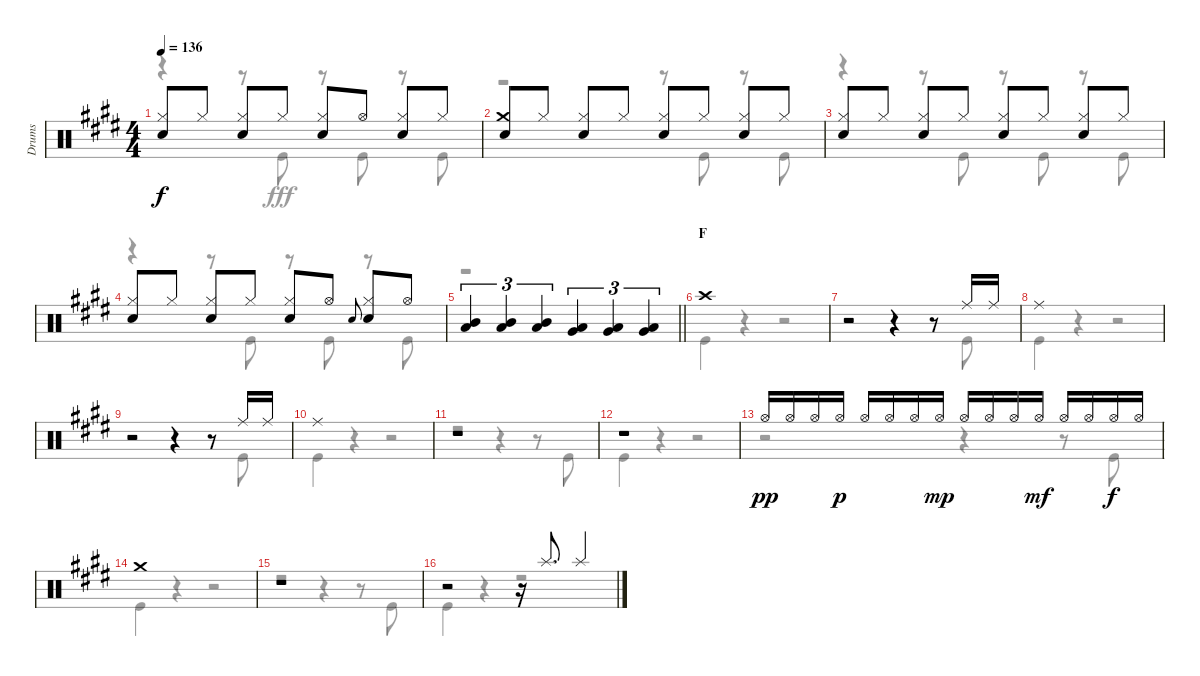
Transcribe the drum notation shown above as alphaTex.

\track ("Drums" "Drums") {instrument percussion}
\staff {score}
\articulation defaults
\voice
\ts (4 4)
\tempo 136
\clef neutral
\ks e
("Hi-Hat (closed)" "Snare (hit) 2").8{dy f} "Hi-Hat (closed)".8 ("Hi-Hat (closed)" "Snare (hit) 2").8 "Hi-Hat (closed)".8 ("Hi-Hat (closed)" "Snare (hit) 2").8 "Hi-Hat (open)".8 ("Hi-Hat (closed)" "Snare (hit) 2").8 "Hi-Hat (closed)".8 |
("Crash medium (hit)" "Snare (hit) 2").8 "Hi-Hat (closed)".8 ("Hi-Hat (closed)" "Snare (hit) 2").8 "Hi-Hat (closed)".8 ("Hi-Hat (closed)" "Snare (hit) 2").8 "Hi-Hat (closed)".8 ("Hi-Hat (closed)" "Snare (hit) 2").8 "Hi-Hat (closed)".8 |
("Hi-Hat (closed)" "Snare (hit) 2").8 "Hi-Hat (closed)".8 ("Hi-Hat (closed)" "Snare (hit) 2").8 "Hi-Hat (closed)".8 ("Hi-Hat (closed)" "Snare (hit) 2").8 "Hi-Hat (closed)".8 ("Hi-Hat (closed)" "Snare (hit) 2").8 "Hi-Hat (closed)".8 |
("Hi-Hat (closed)" "Snare (hit) 2").8 "Hi-Hat (closed)".8 ("Hi-Hat (closed)" "Snare (hit) 2").8 "Hi-Hat (closed)".8 ("Hi-Hat (closed)" "Snare (hit) 2").8 "Hi-Hat (open)".8 "Snare (hit) 2".8{gr onbeat} ("Hi-Hat (closed)" "Snare (hit) 2").8 "Hi-Hat (open)".8 |
\barLineRight lightlight
("Mid Tom (hit)" "Low Tom (hit)").4{tu (3 2)} ("Mid Tom (hit)" "Low Tom (hit)").4{tu (3 2)} ("Mid Tom (hit)" "Low Tom (hit)").4{tu (3 2)} ("Low Tom (hit)" "Very Low Tom (hit)").4{tu (3 2)} ("Low Tom (hit)" "Very Low Tom (hit)").4{tu (3 2)} ("Low Tom (hit)" "Very Low Tom (hit)").4{tu (3 2)} |
\section ("" "F")
"Crash high (hit)".1 |
r.2 r.4 r.8 "Ride (middle)".16 "Ride (middle)".16 |
"Ride (middle)".1 |
r.2 r.4 r.8 "Ride (middle)".16 "Ride (middle)".16 |
"Ride (middle)".1 |
r.1 |
r.1 |
"Hi-Hat (open)".16{dy pp} "Hi-Hat (open)".16 "Hi-Hat (open)".16 "Hi-Hat (open)".16{dy p} "Hi-Hat (open)".16 "Hi-Hat (open)".16 "Hi-Hat (open)".16 "Hi-Hat (open)".16{dy mp} "Hi-Hat (open)".16 "Hi-Hat (open)".16 "Hi-Hat (open)".16 "Hi-Hat (open)".16{dy mf} "Hi-Hat (open)".16 "Hi-Hat (open)".16 "Hi-Hat (open)".16{dy f} "Hi-Hat (open)".16 |
"Crash medium (hit)".1 |
r.1 |
r.2 r.16 "Splash (hit)".8{d} "Splash (hit)".4
\voice
\clef neutral
\ottava regular
\simile none
\ks e
r.4{dy fff} r.8 "Kick (hit)".8 r.8 "Kick (hit)".8 r.8 "Kick (hit)".8 |
r.2 r.8 "Kick (hit)".8 r.8 "Kick (hit)".8 |
r.4 r.8 "Kick (hit)".8 r.8 "Kick (hit)".8 r.8 "Kick (hit)".8 |
r.4 r.8 "Kick (hit)".8 r.8 "Kick (hit)".8 r.8 "Kick (hit)".8 |
\barLineRight lightlight
r.1 |
"Kick (hit)".4 r.4 r.2 |
r.2 r.4 r.8 "Kick (hit)".8 |
"Kick (hit)".4 r.4 r.2 |
r.2 r.4 r.8 "Kick (hit)".8 |
"Kick (hit)".4 r.4 r.2 |
r.2 r.4 r.8 "Kick (hit)".8 |
"Kick (hit)".4 r.4 r.2 |
r.2 r.4 r.8 "Kick (hit)".8 |
"Kick (hit)".4 r.4 r.2 |
r.2 r.4 r.8 "Kick (hit)".8 |
"Kick (hit)".4 r.4 r.2
